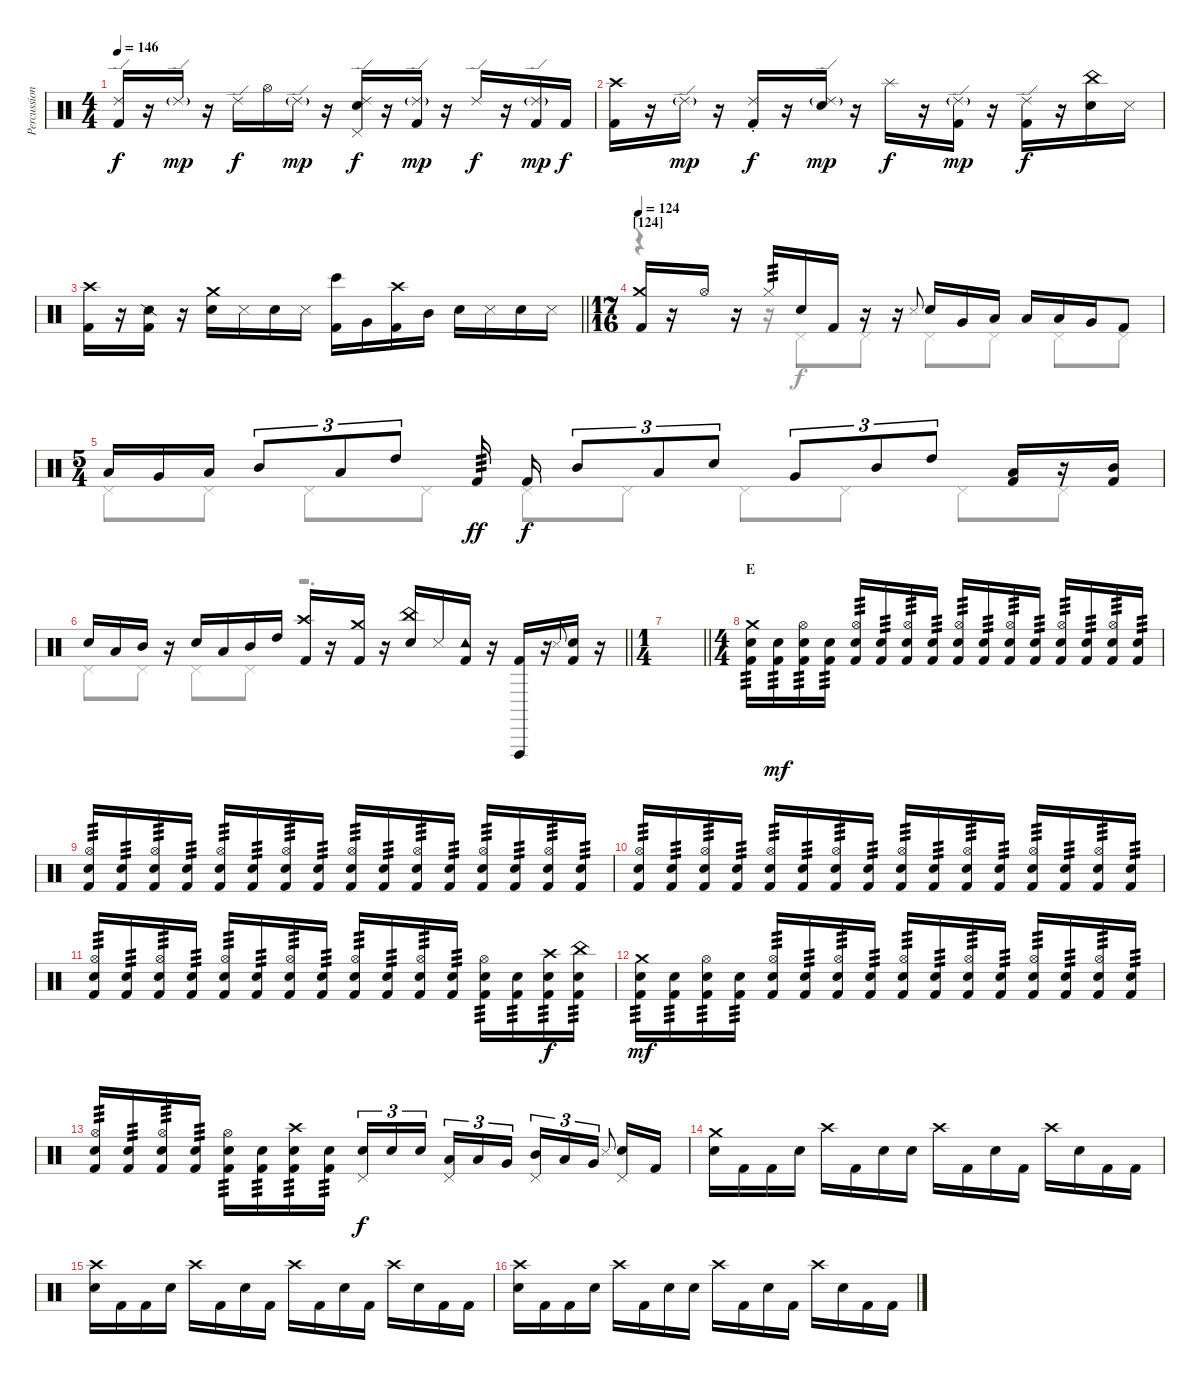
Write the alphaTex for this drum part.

\track ("Percussion" "Percussion") {instrument percussion}
\staff {score}
\articulation defaults
\voice
\ts (4 4)
\tempo 146
\clef neutral
\ks c
("Ride (edge) 2" "Kick (hit) 2").16{dy f} r.16 "Ride (edge) 2"{g}.16{dy mp} r.16 "Ride (edge) 2".16{dy f} "Hi-Hat (open)".16 "Ride (edge) 2"{g}.16{dy mp} r.16 ("Ride (edge) 2" "Pedal Hi-Hat (hit)" "Snare (hit) 2").16{dy f} r.16 ("Ride (edge) 2"{g} "Kick (hit) 2").16{dy mp} r.16 "Ride (edge) 2".16{dy f} r.16 ("Ride (edge) 2"{g} "Kick (hit) 2").16{dy mp} "Kick (hit) 2".16{dy f} |
("Crash high (hit)" "Kick (hit) 2").16 r.16 "Ride (edge) 2"{g}.16{dy mp} r.16 ("Ride (choke) 2" "Kick (hit) 2").16{dy f} r.16 ("Ride (edge) 2"{g} "Snare (hit) 2").16{dy mp} r.16 "Splash (hit)".16{dy f} r.16 ("Ride (edge) 2"{g} "Kick (hit) 2").16{dy mp} r.16 ("Ride (edge) 2" "Kick (hit) 2").16{dy f} r.16 ("China (hit)" "Snare (hit) 2").16 "Metronome (hit)".16 |
\barLineRight lightlight
("Crash high (hit)" "Kick (hit) 2").16 r.16 ("Snare (side stick) 2" "Kick (hit) 2").16 r.16 ("Crash medium (hit)" "Snare (hit) 2").16 "Metronome (hit)".16 "Snare (hit) 2".16 "Metronome (hit)".16 ("Bongo High (hit)" "Kick (hit) 2").16 "Very Low Tom (hit)".16 ("Crash high (hit)" "Kick (hit) 2").16 "Mid Tom (hit)".16 "Snare (hit) 2".16 "Metronome (hit)".16 "Snare (hit) 2".16 "Metronome (hit)".16 |
\ts (17 16)
\section ("" "[124]")
\tempo 124
("Crash medium (hit)" "Kick (hit) 2").16 r.16 "Hi-Hat (open)".16 r.16 "Hi-Hat (closed)".16{tp 3} "Snare (hit) 2".16 "Kick (hit) 2".16 r.16 r.16 "Metronome (hit)".8{gr onbeat} "Snare (hit) 2".16 "Very Low Tom (hit)".16 "Low Tom (hit)".16 "Low Tom (hit)".16 "Low Tom (hit)".16 "Very Low Tom (hit)".16 "Kick (hit) 2".8 |
\ts (5 4)
"Low Floor Tom (hit)".16 "Very Low Tom (hit)".16 "Low Tom (hit)".16 "Mid Tom (hit)".8{tu (3 2)} "Low Tom (hit)".8{tu (3 2)} "High Tom (hit)".8{tu (3 2)} "Kick (hit) 2".16{tp 3 dy ff} "Kick (hit) 2".16{dy f} "Mid Tom (hit)".8{tu (3 2)} "Low Tom (hit)".8{tu (3 2)} "Snare (hit) 2".8{tu (3 2)} "Very Low Tom (hit)".8{tu (3 2)} "Mid Tom (hit)".8{tu (3 2)} "High Tom (hit)".8{tu (3 2)} ("Low Tom (hit)" "Kick (hit) 2").16 r.16 ("Mid Tom (hit)" "Kick (hit) 2").16 |
\barLineRight lightlight "Snare (hit) 2".16 "Low Tom (hit)".16 "Mid Tom (hit)".16
r.16 "Snare (hit) 2".16 "Low Tom (hit)".16 "Mid Tom (hit)".16 "High Tom (hit)".16 ("Crash high (hit)" "Kick (hit) 2").16 r.16 ("Crash medium (hit)" "Kick (hit) 2").16 r.16 ("China (hit)" "Snare (hit) 2").16 "Metronome (hit)".16 ("Tambourine (hit)" "Kick (hit) 2").16 r.16 ("Vibraslap (hit)" "Kick (hit) 2").16 r.16 "Metronome (hit)".8{gr onbeat} ("Snare (hit) 2" "Kick (hit) 2").16 r.16 |
\ts (1 4)
\barLineRight lightlight
|
\ts (4 4)
\section ("" "E")
("Crash medium (hit)" "Snare (hit) 2" "Kick (hit) 2").16{tp 3} ("Snare (hit) 2" "Kick (hit) 2").16{tp 3 dy mf} ("Hi-Hat (open)" "Snare (hit) 2" "Kick (hit) 2").16{tp 3} ("Snare (hit) 2" "Kick (hit) 2").16{tp 3} ("Hi-Hat (open)" "Snare (hit) 2" "Kick (hit) 2").16{tp 3} ("Snare (hit) 2" "Kick (hit) 2").16{tp 3} ("Hi-Hat (open)" "Snare (hit) 2" "Kick (hit) 2").16{tp 3} ("Snare (hit) 2" "Kick (hit) 2").16{tp 3} ("Hi-Hat (open)" "Snare (hit) 2" "Kick (hit) 2").16{tp 3} ("Snare (hit) 2" "Kick (hit) 2").16{tp 3} ("Hi-Hat (open)" "Snare (hit) 2" "Kick (hit) 2").16{tp 3} ("Snare (hit) 2" "Kick (hit) 2").16{tp 3} ("Hi-Hat (open)" "Snare (hit) 2" "Kick (hit) 2").16{tp 3} ("Snare (hit) 2" "Kick (hit) 2").16{tp 3} ("Hi-Hat (open)" "Snare (hit) 2" "Kick (hit) 2").16{tp 3} ("Snare (hit) 2" "Kick (hit) 2").16{tp 3} |
("Hi-Hat (open)" "Snare (hit) 2" "Kick (hit) 2").16{tp 3} ("Snare (hit) 2" "Kick (hit) 2").16{tp 3} ("Hi-Hat (open)" "Snare (hit) 2" "Kick (hit) 2").16{tp 3} ("Snare (hit) 2" "Kick (hit) 2").16{tp 3} ("Hi-Hat (open)" "Snare (hit) 2" "Kick (hit) 2").16{tp 3} ("Snare (hit) 2" "Kick (hit) 2").16{tp 3} ("Hi-Hat (open)" "Snare (hit) 2" "Kick (hit) 2").16{tp 3} ("Snare (hit) 2" "Kick (hit) 2").16{tp 3} ("Hi-Hat (open)" "Snare (hit) 2" "Kick (hit) 2").16{tp 3} ("Snare (hit) 2" "Kick (hit) 2").16{tp 3} ("Hi-Hat (open)" "Snare (hit) 2" "Kick (hit) 2").16{tp 3} ("Snare (hit) 2" "Kick (hit) 2").16{tp 3} ("Hi-Hat (open)" "Snare (hit) 2" "Kick (hit) 2").16{tp 3} ("Snare (hit) 2" "Kick (hit) 2").16{tp 3} ("Hi-Hat (open)" "Snare (hit) 2" "Kick (hit) 2").16{tp 3} ("Snare (hit) 2" "Kick (hit) 2").16{tp 3} |
("Hi-Hat (open)" "Snare (hit) 2" "Kick (hit) 2").16{tp 3} ("Snare (hit) 2" "Kick (hit) 2").16{tp 3} ("Hi-Hat (open)" "Snare (hit) 2" "Kick (hit) 2").16{tp 3} ("Snare (hit) 2" "Kick (hit) 2").16{tp 3} ("Hi-Hat (open)" "Snare (hit) 2" "Kick (hit) 2").16{tp 3} ("Snare (hit) 2" "Kick (hit) 2").16{tp 3} ("Hi-Hat (open)" "Snare (hit) 2" "Kick (hit) 2").16{tp 3} ("Snare (hit) 2" "Kick (hit) 2").16{tp 3} ("Hi-Hat (open)" "Snare (hit) 2" "Kick (hit) 2").16{tp 3} ("Snare (hit) 2" "Kick (hit) 2").16{tp 3} ("Hi-Hat (open)" "Snare (hit) 2" "Kick (hit) 2").16{tp 3} ("Snare (hit) 2" "Kick (hit) 2").16{tp 3} ("Hi-Hat (open)" "Snare (hit) 2" "Kick (hit) 2").16{tp 3} ("Snare (hit) 2" "Kick (hit) 2").16{tp 3} ("Hi-Hat (open)" "Snare (hit) 2" "Kick (hit) 2").16{tp 3} ("Snare (hit) 2" "Kick (hit) 2").16{tp 3} |
("Hi-Hat (open)" "Snare (hit) 2" "Kick (hit) 2").16{tp 3} ("Snare (hit) 2" "Kick (hit) 2").16{tp 3} ("Hi-Hat (open)" "Snare (hit) 2" "Kick (hit) 2").16{tp 3} ("Snare (hit) 2" "Kick (hit) 2").16{tp 3} ("Hi-Hat (open)" "Snare (hit) 2" "Kick (hit) 2").16{tp 3} ("Snare (hit) 2" "Kick (hit) 2").16{tp 3} ("Hi-Hat (open)" "Snare (hit) 2" "Kick (hit) 2").16{tp 3} ("Snare (hit) 2" "Kick (hit) 2").16{tp 3} ("Hi-Hat (open)" "Snare (hit) 2" "Kick (hit) 2").16{tp 3} ("Snare (hit) 2" "Kick (hit) 2").16{tp 3} ("Hi-Hat (open)" "Snare (hit) 2" "Kick (hit) 2").16{tp 3} ("Snare (hit) 2" "Kick (hit) 2").16{tp 3} ("Hi-Hat (open)" "Snare (hit) 2" "Kick (hit) 2").16{tp 3} ("Snare (hit) 2" "Kick (hit) 2").16{tp 3} ("Crash high (hit)" "Snare (hit) 2" "Kick (hit) 2").16{tp 3 dy f} ("China (hit)" "Snare (hit) 2" "Kick (hit) 2").16{tp 3} |
("Crash medium (hit)" "Snare (hit) 2" "Kick (hit) 2").16{tp 3 dy mf} ("Snare (hit) 2" "Kick (hit) 2").16{tp 3} ("Hi-Hat (open)" "Snare (hit) 2" "Kick (hit) 2").16{tp 3} ("Snare (hit) 2" "Kick (hit) 2").16{tp 3} ("Hi-Hat (open)" "Snare (hit) 2" "Kick (hit) 2").16{tp 3} ("Snare (hit) 2" "Kick (hit) 2").16{tp 3} ("Hi-Hat (open)" "Snare (hit) 2" "Kick (hit) 2").16{tp 3} ("Snare (hit) 2" "Kick (hit) 2").16{tp 3} ("Hi-Hat (open)" "Snare (hit) 2" "Kick (hit) 2").16{tp 3} ("Snare (hit) 2" "Kick (hit) 2").16{tp 3} ("Hi-Hat (open)" "Snare (hit) 2" "Kick (hit) 2").16{tp 3} ("Snare (hit) 2" "Kick (hit) 2").16{tp 3} ("Hi-Hat (open)" "Snare (hit) 2" "Kick (hit) 2").16{tp 3} ("Snare (hit) 2" "Kick (hit) 2").16{tp 3} ("Hi-Hat (open)" "Snare (hit) 2" "Kick (hit) 2").16{tp 3} ("Snare (hit) 2" "Kick (hit) 2").16{tp 3} |
("Hi-Hat (open)" "Snare (hit) 2" "Kick (hit) 2").16{tp 3} ("Snare (hit) 2" "Kick (hit) 2").16{tp 3} ("Hi-Hat (open)" "Snare (hit) 2" "Kick (hit) 2").16{tp 3} ("Snare (hit) 2" "Kick (hit) 2").16{tp 3} ("Hi-Hat (open)" "Snare (hit) 2" "Kick (hit) 2").16{tp 3} ("Snare (hit) 2" "Kick (hit) 2").16{tp 3} ("Crash high (hit)" "Snare (hit) 2" "Kick (hit) 2").16{tp 3} ("Snare (hit) 2" "Kick (hit) 2").16{tp 3} ("Pedal Hi-Hat (hit)" "Snare (hit) 2").16{tu (3 2) dy f} "Snare (hit) 2".16{tu (3 2)} "Snare (hit) 2".16{tu (3 2) beam splitsecondary} ("Pedal Hi-Hat (hit)" "Low Tom (hit)").16{tu (3 2)} "Low Floor Tom (hit)".16{tu (3 2)} "Very Low Tom (hit)".16{tu (3 2)} ("Pedal Hi-Hat (hit)" "Mid Tom (hit)").16{tu (3 2)} "Low Tom (hit)".16{tu (3 2)} "Very Low Tom (hit)".16{tu (3 2)} "Metronome (hit)".8{gr onbeat beam splitsecondary} ("Pedal Hi-Hat (hit)" "Snare (hit) 2").16 "Kick (hit) 2".16 |
("Crash medium (hit)" "Snare (hit) 2").16 "Kick (hit) 2".16 "Kick (hit) 2".16 "Snare (hit) 2".16 "Crash high (hit)".16 "Kick (hit) 2".16 "Snare (hit) 2".16 "Snare (hit) 2".16 "Crash high (hit)".16 "Kick (hit) 2".16 "Snare (hit) 2".16 "Kick (hit) 2".16 "Crash high (hit)".16 "Snare (hit) 2".16 "Kick (hit) 2".16 "Kick (hit) 2".16 |
("Crash high (hit)" "Snare (hit) 2").16 "Kick (hit) 2".16 "Kick (hit) 2".16 "Snare (hit) 2".16 "Crash high (hit)".16 "Kick (hit) 2".16 "Snare (hit) 2".16 "Kick (hit) 2".16 "Crash high (hit)".16 "Kick (hit) 2".16 "Snare (hit) 2".16 "Kick (hit) 2".16 "Crash high (hit)".16 "Snare (hit) 2".16 "Kick (hit) 2".16 "Kick (hit) 2".16 |
("Crash high (hit)" "Snare (hit) 2").16 "Kick (hit) 2".16 "Kick (hit) 2".16 "Snare (hit) 2".16 "Crash high (hit)".16 "Kick (hit) 2".16 "Snare (hit) 2".16 "Snare (hit) 2".16 "Crash high (hit)".16 "Kick (hit) 2".16 "Snare (hit) 2".16 "Kick (hit) 2".16 "Crash high (hit)".16 "Snare (hit) 2".16 "Kick (hit) 2".16 "Kick (hit) 2".16
\voice
\clef neutral
\ottava regular
\simile none
\ks c
|
|
\barLineRight lightlight
|
r.4 r.16 "Pedal Hi-Hat (hit)".8 "Pedal Hi-Hat (hit)".8 "Pedal Hi-Hat (hit)".8 "Pedal Hi-Hat (hit)".8 "Pedal Hi-Hat (hit)".8 "Pedal Hi-Hat (hit)".8 |
"Pedal Hi-Hat (hit)".8 "Pedal Hi-Hat (hit)".8 "Pedal Hi-Hat (hit)".8 "Pedal Hi-Hat (hit)".8 "Pedal Hi-Hat (hit)".8 "Pedal Hi-Hat (hit)".8 "Pedal Hi-Hat (hit)".8 "Pedal Hi-Hat (hit)".8 "Pedal Hi-Hat (hit)".8 "Pedal Hi-Hat (hit)".8 |
\barLineRight lightlight "Pedal Hi-Hat (hit)".8 "Pedal Hi-Hat (hit)".8 "Pedal Hi-Hat (hit)".8 "Pedal Hi-Hat (hit)".8
r.2{d} |
\barLineRight lightlight
|
|
|
|
|
|
|
|
|
